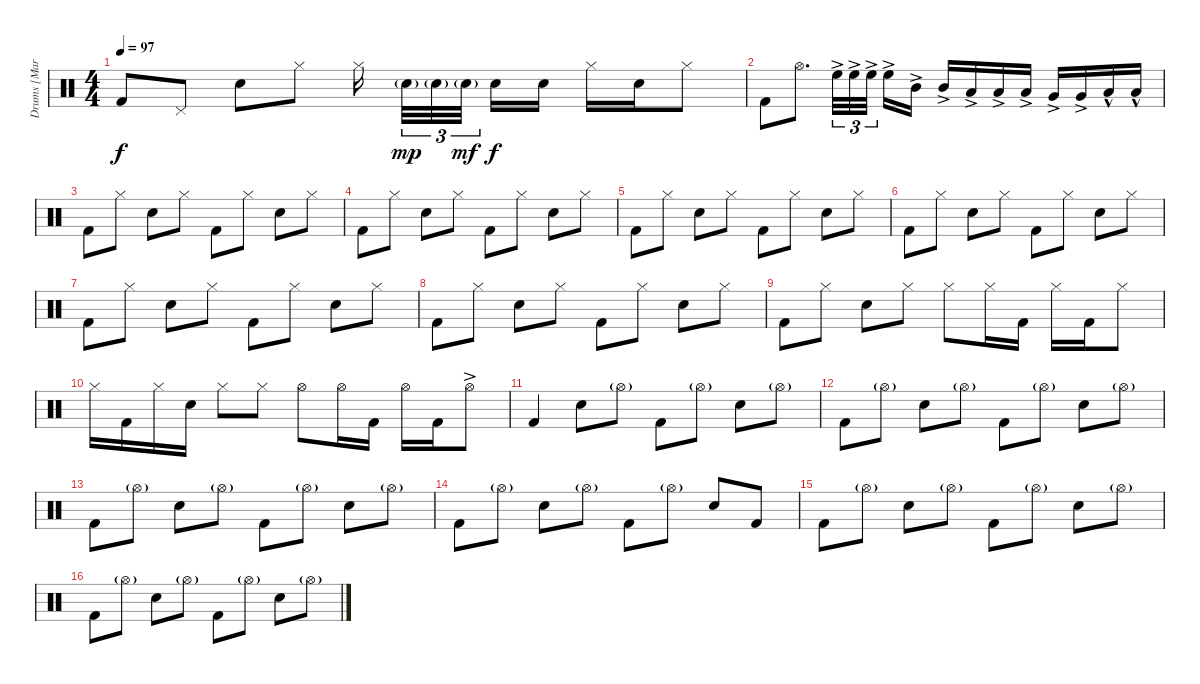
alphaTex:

\track ("Drums [Martin Lopez]" "Drums [Mar") {instrument percussion}
\staff {score}
\articulation defaults
\ts (4 4)
\tempo 97
\clef neutral
\ks c "Kick (hit) 2".8{dy f} "Pedal Hi-Hat (hit)".8 "Snare (hit) 2".8 "Hi-Hat (closed)".8 "Hi-Hat (closed)".16{beam splitsecondary} "Snare (hit) 2"{g}.32{tu (3 2) dy mp} "Snare (hit) 2"{g}.32{tu (3 2)} "Snare (hit) 2"{g}.32{tu (3 2) dy mf beam splitsecondary} "Snare (hit) 2".16{dy f} "Snare (hit) 2".16 "Hi-Hat (closed)".16 "Snare (hit) 2".16 "Hi-Hat (closed)".8
|
"Kick (hit) 2".8 "Hi-Hat (open)".8{d} "High Floor Tom (hit)"{ac}.32{tu (3 2)} "High Floor Tom (hit)"{ac}.32{tu (3 2)} "High Floor Tom (hit)"{ac}.32{tu (3 2) beam splitsecondary} "High Floor Tom (hit)"{ac}.16 "Mid Tom (hit)"{ac}.16 "Mid Tom (hit)"{ac}.16 "Low Tom (hit)"{ac}.16 "Low Tom (hit)"{ac}.16 "Low Tom (hit)"{ac}.16 "Very Low Tom (hit)"{ac}.16 "Very Low Tom (hit)"{ac}.16 "Low Floor Tom (hit)"{hac}.16 "Low Floor Tom (hit)"{hac}.16 |
"Kick (hit) 2".8 "Hi-Hat (closed)".8 "Snare (hit) 2".8 "Hi-Hat (closed)".8 "Kick (hit) 2".8 "Hi-Hat (closed)".8 "Snare (hit) 2".8 "Hi-Hat (closed)".8 |
"Kick (hit) 2".8 "Hi-Hat (closed)".8 "Snare (hit) 2".8 "Hi-Hat (closed)".8 "Kick (hit) 2".8 "Hi-Hat (closed)".8 "Snare (hit) 2".8 "Hi-Hat (closed)".8 |
"Kick (hit) 2".8 "Hi-Hat (closed)".8 "Snare (hit) 2".8 "Hi-Hat (closed)".8 "Kick (hit) 2".8 "Hi-Hat (closed)".8 "Snare (hit) 2".8 "Hi-Hat (closed)".8 |
"Kick (hit) 2".8 "Hi-Hat (closed)".8 "Snare (hit) 2".8 "Hi-Hat (closed)".8 "Kick (hit) 2".8 "Hi-Hat (closed)".8 "Snare (hit) 2".8 "Hi-Hat (closed)".8 |
"Kick (hit) 2".8 "Hi-Hat (closed)".8 "Snare (hit) 2".8 "Hi-Hat (closed)".8 "Kick (hit) 2".8 "Hi-Hat (closed)".8 "Snare (hit) 2".8 "Hi-Hat (closed)".8 |
"Kick (hit) 2".8 "Hi-Hat (closed)".8 "Snare (hit) 2".8 "Hi-Hat (closed)".8 "Kick (hit) 2".8 "Hi-Hat (closed)".8 "Snare (hit) 2".8 "Hi-Hat (closed)".8 |
"Kick (hit) 2".8 "Hi-Hat (closed)".8 "Snare (hit) 2".8 "Hi-Hat (closed)".8 "Hi-Hat (closed)".8 "Hi-Hat (closed)".16 "Kick (hit) 2".16 "Hi-Hat (closed)".16 "Kick (hit) 2".16 "Hi-Hat (closed)".8 |
"Hi-Hat (closed)".16 "Kick (hit) 2".16 "Hi-Hat (closed)".16 "Snare (hit) 2".16 "Hi-Hat (closed)".8 "Hi-Hat (closed)".8 "Hi-Hat (open)".8 "Hi-Hat (open)".16 "Kick (hit) 2".16 "Hi-Hat (open)".16 "Kick (hit) 2".16 "Hi-Hat (open)"{ac}.8 |
"Kick (hit) 2".4 "Snare (hit) 2".8 "Hi-Hat (open)"{g}.8 "Kick (hit) 2".8 "Hi-Hat (open)"{g}.8 "Snare (hit) 2".8 "Hi-Hat (open)"{g}.8 |
"Kick (hit) 2".8 "Hi-Hat (open)"{g}.8 "Snare (hit) 2".8 "Hi-Hat (open)"{g}.8 "Kick (hit) 2".8 "Hi-Hat (open)"{g}.8 "Snare (hit) 2".8 "Hi-Hat (open)"{g}.8 |
"Kick (hit) 2".8 "Hi-Hat (open)"{g}.8 "Snare (hit) 2".8 "Hi-Hat (open)"{g}.8 "Kick (hit) 2".8 "Hi-Hat (open)"{g}.8 "Snare (hit) 2".8 "Hi-Hat (open)"{g}.8 |
"Kick (hit) 2".8 "Hi-Hat (open)"{g}.8 "Snare (hit) 2".8 "Hi-Hat (open)"{g}.8 "Kick (hit) 2".8 "Hi-Hat (open)"{g}.8 "Snare (hit) 2".8 "Kick (hit) 2".8 |
"Kick (hit) 2".8 "Hi-Hat (open)"{g}.8 "Snare (hit) 2".8 "Hi-Hat (open)"{g}.8 "Kick (hit) 2".8 "Hi-Hat (open)"{g}.8 "Snare (hit) 2".8 "Hi-Hat (open)"{g}.8 |
"Kick (hit) 2".8 "Hi-Hat (open)"{g}.8 "Snare (hit) 2".8 "Hi-Hat (open)"{g}.8 "Kick (hit) 2".8 "Hi-Hat (open)"{g}.8 "Snare (hit) 2".8 "Hi-Hat (open)"{g}.8
